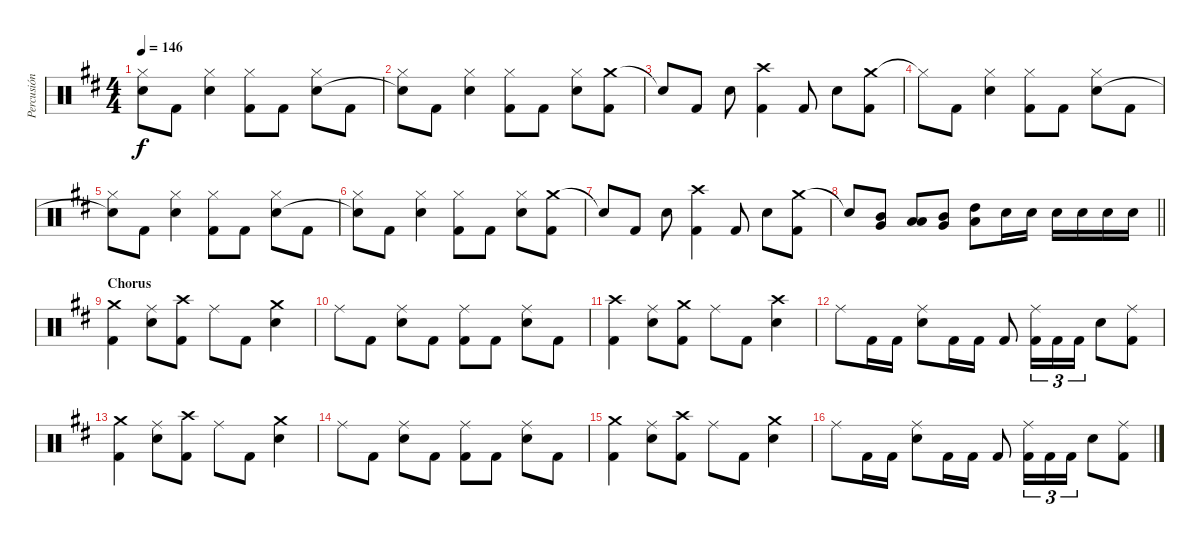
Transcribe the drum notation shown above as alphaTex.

\track ("Percusión" "Percusión") {instrument percussion}
\staff {score}
\articulation defaults
\ts (4 4)
\tempo 146
\clef neutral
\ks d
("Hi-Hat (closed)" "Snare (hit)"{t}).8{dy f} "Kick (hit) 2".8 ("Hi-Hat (closed)" "Snare (hit) 2").4 ("Hi-Hat (closed)" "Kick (hit) 2").8 "Kick (hit) 2".8 ("Hi-Hat (closed)" "Snare (hit) 2").8 "Kick (hit) 2".8 |
("Hi-Hat (closed)" "Snare (hit)"{t}).8 "Kick (hit) 2".8 ("Hi-Hat (closed)" "Snare (hit) 2").4 ("Hi-Hat (closed)" "Kick (hit) 2").8 "Kick (hit) 2".8 ("Hi-Hat (closed)" "Snare (hit) 2").8 ("Crash medium (hit)" "Kick (hit) 2").8 |
"Snare (hit)"{t}.8 "Kick (hit) 2".8 "Snare (hit) 2".8 ("Crash high (hit)" "Kick (hit) 2").4 "Kick (hit) 2".8 "Snare (hit) 2".8 ("Crash medium (hit)" "Kick (hit) 2").8 |
"Hi-Hat (closed)"{t}.8 "Kick (hit) 2".8 ("Hi-Hat (closed)" "Snare (hit) 2").4 ("Hi-Hat (closed)" "Kick (hit) 2").8 "Kick (hit) 2".8 ("Hi-Hat (closed)" "Snare (hit) 2").8 "Kick (hit) 2".8 |
("Hi-Hat (closed)" "Snare (hit)"{t}).8 "Kick (hit) 2".8 ("Hi-Hat (closed)" "Snare (hit) 2").4 ("Hi-Hat (closed)" "Kick (hit) 2").8 "Kick (hit) 2".8 ("Hi-Hat (closed)" "Snare (hit) 2").8 "Kick (hit) 2".8 |
("Hi-Hat (closed)" "Snare (hit)"{t}).8 "Kick (hit) 2".8 ("Hi-Hat (closed)" "Snare (hit) 2").4 ("Hi-Hat (closed)" "Kick (hit) 2").8 "Kick (hit) 2".8 ("Hi-Hat (closed)" "Snare (hit) 2").8 ("Crash medium (hit)" "Kick (hit) 2").8 |
"Snare (hit)"{t}.8 "Kick (hit) 2".8 "Snare (hit) 2".8 ("Crash high (hit)" "Kick (hit) 2").4 "Kick (hit) 2".8 "Snare (hit) 2".8 ("Crash medium (hit)" "Kick (hit) 2").8 |
\barLineRight lightlight "Snare (hit)"{t}.8
("Mid Tom (hit)" "Very Low Tom (hit)").8 ("Low Floor Tom (hit)" "Low Tom (hit)").8 ("Very Low Tom (hit)" "Mid Tom (hit)").8 ("Low Tom (hit)" "High Tom (hit)").8 "Snare (hit) 2".16 "Snare (hit) 2".16 "Snare (hit) 2".16 "Snare (hit) 2".16 "Snare (hit) 2".16 "Snare (hit) 2".16 |
\section ("" "Chorus")
("Crash medium (hit)" "Kick (hit) 2").4 ("Ride (middle)" "Snare (hit) 2").8 ("Crash high (hit)" "Kick (hit) 2").8 "Ride (middle)".8 "Kick (hit) 2".8 ("Crash medium (hit)" "Snare (hit) 2").4 |
"Ride (middle)".8 "Kick (hit) 2".8 ("Ride (middle)" "Snare (hit) 2").8 "Kick (hit) 2".8 ("Ride (middle)" "Kick (hit) 2").8 "Kick (hit) 2".8 ("Ride (middle)" "Snare (hit) 2").8 "Kick (hit) 2".8 |
("Crash high (hit)" "Kick (hit) 2").4 ("Ride (middle)" "Snare (hit) 2").8 ("Crash medium (hit)" "Kick (hit) 2").8 "Ride (middle)".8 "Kick (hit) 2".8 ("Crash high (hit)" "Snare (hit) 2").4 |
"Ride (middle)".8 "Kick (hit) 2".16 "Kick (hit) 2".16 ("Ride (middle)" "Snare (hit) 2").8 "Kick (hit) 2".16 "Kick (hit) 2".16 "Kick (hit) 2".8 ("Ride (middle)" "Kick (hit) 2").16{tu (3 2)} "Kick (hit) 2".16{tu (3 2)} "Kick (hit) 2".16{tu (3 2)} "Snare (hit) 2".8 ("Ride (middle)" "Kick (hit) 2").8 |
("Crash medium (hit)" "Kick (hit) 2").4 ("Ride (middle)" "Snare (hit) 2").8 ("Crash high (hit)" "Kick (hit) 2").8 "Ride (middle)".8 "Kick (hit) 2".8 ("Crash medium (hit)" "Snare (hit) 2").4 |
"Ride (middle)".8 "Kick (hit) 2".8 ("Ride (middle)" "Snare (hit) 2").8 "Kick (hit) 2".8 ("Ride (middle)" "Kick (hit) 2").8 "Kick (hit) 2".8 ("Ride (middle)" "Snare (hit) 2").8 "Kick (hit) 2".8 |
("Crash medium (hit)" "Kick (hit) 2").4 ("Ride (middle)" "Snare (hit) 2").8 ("Crash high (hit)" "Kick (hit) 2").8 "Ride (middle)".8 "Kick (hit) 2".8 ("Crash medium (hit)" "Snare (hit) 2").4 |
"Ride (middle)".8 "Kick (hit) 2".16 "Kick (hit) 2".16 ("Ride (middle)" "Snare (hit) 2").8 "Kick (hit) 2".16 "Kick (hit) 2".16 "Kick (hit) 2".8 ("Ride (middle)" "Kick (hit) 2").16{tu (3 2)} "Kick (hit) 2".16{tu (3 2)} "Kick (hit) 2".16{tu (3 2)} "Snare (hit) 2".8 ("Ride (middle)" "Kick (hit) 2").8
